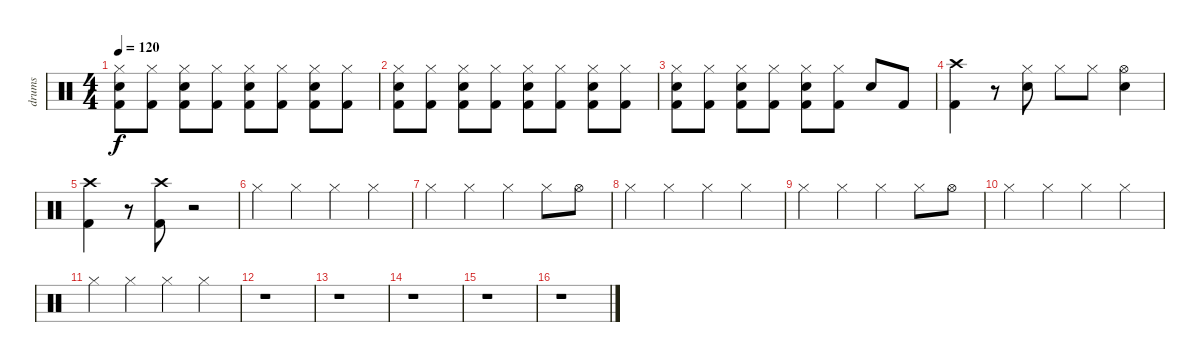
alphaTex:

\track ("drums" "drums") {instrument percussion}
\staff {score}
\articulation defaults
\ts (4 4)
\tempo 120
\clef neutral
\ks c
("Hi-Hat (closed)" "Snare (hit) 2" "Kick (hit) 2").8{dy f} ("Hi-Hat (closed)" "Kick (hit) 2").8 ("Hi-Hat (closed)" "Snare (hit) 2" "Kick (hit) 2").8 ("Hi-Hat (closed)" "Kick (hit) 2").8 ("Hi-Hat (closed)" "Snare (hit) 2" "Kick (hit) 2").8 ("Hi-Hat (closed)" "Kick (hit) 2").8 ("Hi-Hat (closed)" "Snare (hit) 2" "Kick (hit) 2").8 ("Hi-Hat (closed)" "Kick (hit) 2").8 |
("Hi-Hat (closed)" "Snare (hit) 2" "Kick (hit) 2").8 ("Hi-Hat (closed)" "Kick (hit) 2").8 ("Hi-Hat (closed)" "Snare (hit) 2" "Kick (hit) 2").8 ("Hi-Hat (closed)" "Kick (hit) 2").8 ("Hi-Hat (closed)" "Snare (hit) 2" "Kick (hit) 2").8 ("Hi-Hat (closed)" "Kick (hit) 2").8 ("Hi-Hat (closed)" "Snare (hit) 2" "Kick (hit) 2").8 ("Hi-Hat (closed)" "Kick (hit) 2").8 |
("Hi-Hat (closed)" "Snare (hit) 2" "Kick (hit) 2").8 ("Hi-Hat (closed)" "Kick (hit) 2").8 ("Hi-Hat (closed)" "Snare (hit) 2" "Kick (hit) 2").8 ("Hi-Hat (closed)" "Kick (hit) 2").8 ("Hi-Hat (closed)" "Snare (hit) 2" "Kick (hit) 2").8 ("Hi-Hat (closed)" "Kick (hit) 2").8 "Snare (hit) 2".8 "Kick (hit) 2".8 |
("Crash high (hit)" "Kick (hit) 2").4 r.8 ("Hi-Hat (closed)" "Snare (hit) 2").8 "Hi-Hat (closed)".8 "Hi-Hat (closed)".8 ("Hi-Hat (open)" "Snare (hit) 2").4 |
("Crash high (hit)" "Kick (hit) 2").4 r.8 ("Crash high (hit)" "Kick (hit) 2").8 r.2 |
"Hi-Hat (closed)".4 "Hi-Hat (closed)".4 "Hi-Hat (closed)".4 "Hi-Hat (closed)".4 |
"Hi-Hat (closed)".4 "Hi-Hat (closed)".4 "Hi-Hat (closed)".4 "Hi-Hat (closed)".8 "Hi-Hat (open)".8 |
"Hi-Hat (closed)".4 "Hi-Hat (closed)".4 "Hi-Hat (closed)".4 "Hi-Hat (closed)".4 |
"Hi-Hat (closed)".4 "Hi-Hat (closed)".4 "Hi-Hat (closed)".4 "Hi-Hat (closed)".8 "Hi-Hat (open)".8 |
"Hi-Hat (closed)".4 "Hi-Hat (closed)".4 "Hi-Hat (closed)".4 "Hi-Hat (closed)".4 |
"Hi-Hat (closed)".4 "Hi-Hat (closed)".4 "Hi-Hat (closed)".4 "Hi-Hat (closed)".4 |
r.1 |
r.1 |
r.1 |
r.1 |
r.1
